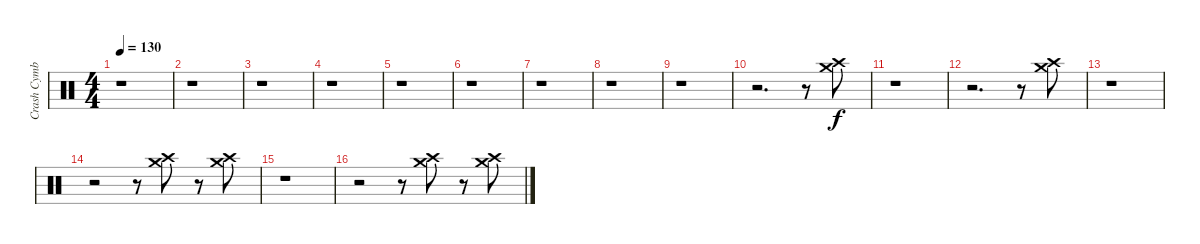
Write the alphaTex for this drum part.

\track ("Crash Cymbal" "Crash Cymb") {instrument percussion}
\staff {score}
\articulation defaults
\ts (4 4)
\tempo 130
\clef neutral
\ks c
r.1{dy f} |
r.1 |
r.1 |
r.1 |
r.1 |
r.1 |
r.1 |
r.1 |
r.1 |
r.2{d} r.8 ("Crash high (hit)" "Crash medium (hit)").8 |
r.1 |
r.2{d} r.8 ("Crash high (hit)" "Crash medium (hit)").8 |
r.1 |
r.2 r.8 ("Crash high (hit)" "Crash medium (hit)").8 r.8 ("Crash high (hit)" "Crash medium (hit)").8 |
r.1 |
r.2 r.8 ("Crash high (hit)" "Crash medium (hit)").8 r.8 ("Crash high (hit)" "Crash medium (hit)").8
